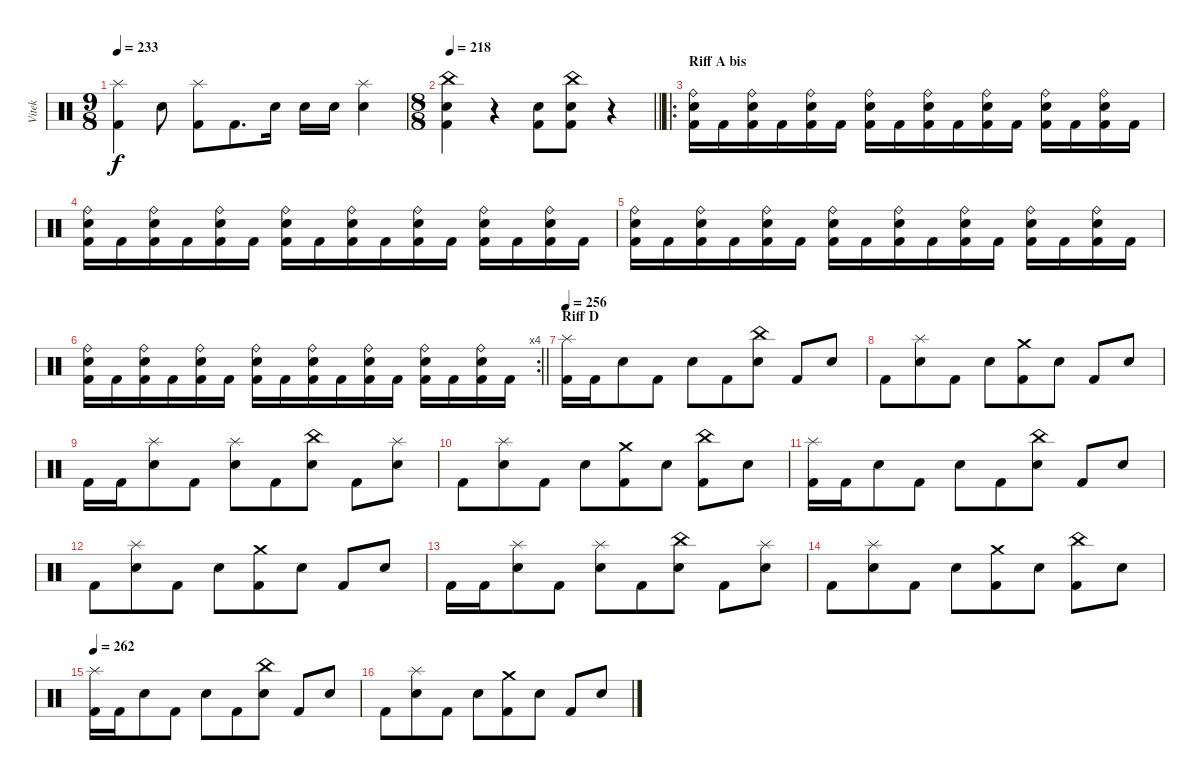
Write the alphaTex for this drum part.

\track ("Vitek" "Vitek") {instrument percussion}
\staff {score}
\articulation defaults
\ts (9 8)
\tempo 233
\clef neutral
\ks c
("Splash (hit)" "Kick (hit) 2").4{dy f} "Electric Snare (hit)".8 ("Splash (hit)" "Kick (hit) 2").8 "Kick (hit) 2".8{d} "Electric Snare (hit)".16 "Electric Snare (hit)".16 "Electric Snare (hit)".16 ("Splash (hit)" "Electric Snare (hit)").4 |
\ts (8 8)
\tempo 218
\barLineRight lightlight
("China (hit)" "Electric Snare (hit)" "Kick (hit) 2").4 r.4 ("Electric Snare (hit)" "Kick (hit) 2").8 ("China (hit)" "Electric Snare (hit)" "Kick (hit) 2").8 r.4 |
\ro
\section ("" "Riff A bis")
("Ride (bell)" "Electric Snare (hit)" "Kick (hit) 2").16 "Kick (hit) 2".16 ("Ride (bell)" "Electric Snare (hit)" "Kick (hit) 2").16 "Kick (hit) 2".16 ("Ride (bell)" "Electric Snare (hit)" "Kick (hit) 2").16 "Kick (hit) 2".16 ("Ride (bell)" "Electric Snare (hit)" "Kick (hit) 2").16 "Kick (hit) 2".16 ("Ride (bell)" "Electric Snare (hit)" "Kick (hit) 2").16 "Kick (hit) 2".16 ("Ride (bell)" "Electric Snare (hit)" "Kick (hit) 2").16 "Kick (hit) 2".16 ("Ride (bell)" "Electric Snare (hit)" "Kick (hit) 2").16 "Kick (hit) 2".16 ("Ride (bell)" "Electric Snare (hit)" "Kick (hit) 2").16 "Kick (hit) 2".16 |
("Ride (bell)" "Electric Snare (hit)" "Kick (hit) 2").16 "Kick (hit) 2".16 ("Ride (bell)" "Electric Snare (hit)" "Kick (hit) 2").16 "Kick (hit) 2".16 ("Ride (bell)" "Electric Snare (hit)" "Kick (hit) 2").16 "Kick (hit) 2".16 ("Ride (bell)" "Electric Snare (hit)" "Kick (hit) 2").16 "Kick (hit) 2".16 ("Ride (bell)" "Electric Snare (hit)" "Kick (hit) 2").16 "Kick (hit) 2".16 ("Ride (bell)" "Electric Snare (hit)" "Kick (hit) 2").16 "Kick (hit) 2".16 ("Ride (bell)" "Electric Snare (hit)" "Kick (hit) 2").16 "Kick (hit) 2".16 ("Ride (bell)" "Electric Snare (hit)" "Kick (hit) 2").16 "Kick (hit) 2".16 |
("Ride (bell)" "Electric Snare (hit)" "Kick (hit) 2").16 "Kick (hit) 2".16 ("Ride (bell)" "Electric Snare (hit)" "Kick (hit) 2").16 "Kick (hit) 2".16 ("Ride (bell)" "Electric Snare (hit)" "Kick (hit) 2").16 "Kick (hit) 2".16 ("Ride (bell)" "Electric Snare (hit)" "Kick (hit) 2").16 "Kick (hit) 2".16 ("Ride (bell)" "Electric Snare (hit)" "Kick (hit) 2").16 "Kick (hit) 2".16 ("Ride (bell)" "Electric Snare (hit)" "Kick (hit) 2").16 "Kick (hit) 2".16 ("Ride (bell)" "Electric Snare (hit)" "Kick (hit) 2").16 "Kick (hit) 2".16 ("Ride (bell)" "Electric Snare (hit)" "Kick (hit) 2").16 "Kick (hit) 2".16 |
\rc 4
\barLineRight lightlight
("Ride (bell)" "Electric Snare (hit)" "Kick (hit) 2").16 "Kick (hit) 2".16 ("Ride (bell)" "Electric Snare (hit)" "Kick (hit) 2").16 "Kick (hit) 2".16 ("Ride (bell)" "Electric Snare (hit)" "Kick (hit) 2").16 "Kick (hit) 2".16 ("Ride (bell)" "Electric Snare (hit)" "Kick (hit) 2").16 "Kick (hit) 2".16 ("Ride (bell)" "Electric Snare (hit)" "Kick (hit) 2").16 "Kick (hit) 2".16 ("Ride (bell)" "Electric Snare (hit)" "Kick (hit) 2").16 "Kick (hit) 2".16 ("Ride (bell)" "Electric Snare (hit)" "Kick (hit) 2").16 "Kick (hit) 2".16 ("Ride (bell)" "Electric Snare (hit)" "Kick (hit) 2").16 "Kick (hit) 2".16 |
\section ("" "Riff D")
\tempo 256
("Splash (hit)" "Kick (hit) 2").16 "Kick (hit) 2".16 "Electric Snare (hit)".8 "Kick (hit) 2".8 "Electric Snare (hit)".8 "Kick (hit) 2".8 ("China (hit)" "Electric Snare (hit)").8 "Kick (hit) 2".8 "Electric Snare (hit)".8 |
"Kick (hit) 2".8 ("Splash (hit)" "Electric Snare (hit)").8 "Kick (hit) 2".8 "Electric Snare (hit)".8 ("Crash medium (hit)" "Kick (hit) 2").8 "Electric Snare (hit)".8 "Kick (hit) 2".8 "Electric Snare (hit)".8 |
"Kick (hit) 2".16 "Kick (hit) 2".16 ("Splash (hit)" "Electric Snare (hit)").8 "Kick (hit) 2".8 ("Splash (hit)" "Electric Snare (hit)").8 "Kick (hit) 2".8 ("China (hit)" "Electric Snare (hit)").8 "Kick (hit) 2".8 ("Splash (hit)" "Electric Snare (hit)").8 |
"Kick (hit) 2".8 ("Splash (hit)" "Electric Snare (hit)").8 "Kick (hit) 2".8 "Electric Snare (hit)".8 ("Crash medium (hit)" "Kick (hit) 2").8 "Electric Snare (hit)".8 ("China (hit)" "Kick (hit) 2").8 "Electric Snare (hit)".8 |
("Splash (hit)" "Kick (hit) 2").16 "Kick (hit) 2".16 "Electric Snare (hit)".8 "Kick (hit) 2".8 "Electric Snare (hit)".8 "Kick (hit) 2".8 ("China (hit)" "Electric Snare (hit)").8 "Kick (hit) 2".8 "Electric Snare (hit)".8 |
"Kick (hit) 2".8 ("Splash (hit)" "Electric Snare (hit)").8 "Kick (hit) 2".8 "Electric Snare (hit)".8 ("Crash medium (hit)" "Kick (hit) 2").8 "Electric Snare (hit)".8 "Kick (hit) 2".8 "Electric Snare (hit)".8 |
"Kick (hit) 2".16 "Kick (hit) 2".16 ("Splash (hit)" "Electric Snare (hit)").8 "Kick (hit) 2".8 ("Splash (hit)" "Electric Snare (hit)").8 "Kick (hit) 2".8 ("China (hit)" "Electric Snare (hit)").8 "Kick (hit) 2".8 ("Splash (hit)" "Electric Snare (hit)").8 |
"Kick (hit) 2".8 ("Splash (hit)" "Electric Snare (hit)").8 "Kick (hit) 2".8 "Electric Snare (hit)".8 ("Crash medium (hit)" "Kick (hit) 2").8 "Electric Snare (hit)".8 ("China (hit)" "Kick (hit) 2").8 "Electric Snare (hit)".8 |
\tempo 262
("Splash (hit)" "Kick (hit) 2").16 "Kick (hit) 2".16 "Electric Snare (hit)".8 "Kick (hit) 2".8 "Electric Snare (hit)".8 "Kick (hit) 2".8 ("China (hit)" "Electric Snare (hit)").8 "Kick (hit) 2".8 "Electric Snare (hit)".8 |
"Kick (hit) 2".8 ("Splash (hit)" "Electric Snare (hit)").8 "Kick (hit) 2".8 "Electric Snare (hit)".8 ("Crash medium (hit)" "Kick (hit) 2").8 "Electric Snare (hit)".8 "Kick (hit) 2".8 "Electric Snare (hit)".8
